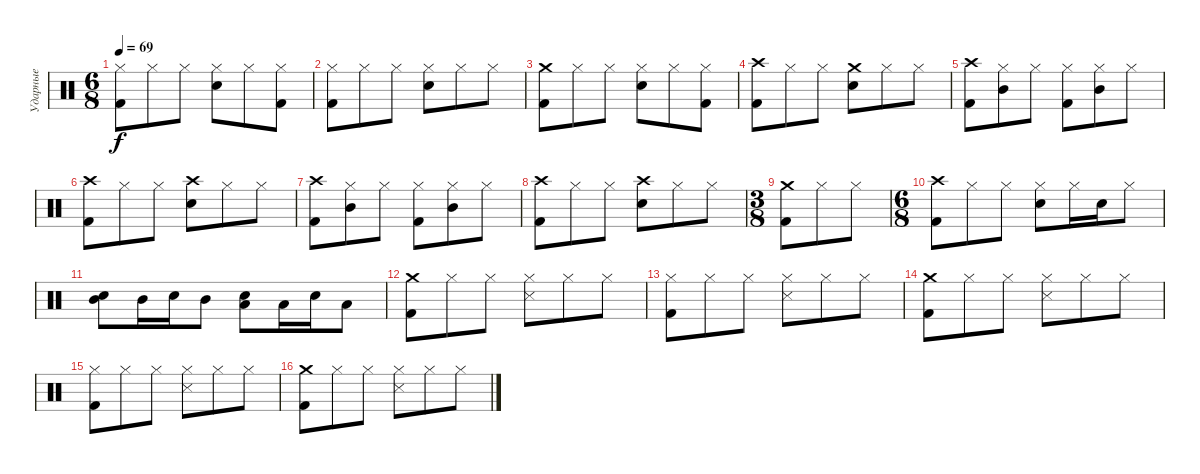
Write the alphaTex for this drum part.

\track ("Ударные" "Ударные") {instrument percussion}
\staff {score}
\articulation defaults
\ts (6 8)
\tempo 69
\clef neutral
\ks c
("Hi-Hat (closed)" "Kick (hit) 2").8{dy f} "Hi-Hat (closed)".8 "Hi-Hat (closed)".8 ("Hi-Hat (closed)" "Snare (hit) 2").8 "Hi-Hat (closed)".8 ("Hi-Hat (closed)" "Kick (hit) 2").8 |
("Hi-Hat (closed)" "Kick (hit) 2").8 "Hi-Hat (closed)".8 "Hi-Hat (closed)".8 ("Hi-Hat (closed)" "Snare (hit) 2").8 "Hi-Hat (closed)".8 "Hi-Hat (closed)".8 |
("Crash medium (hit)" "Kick (hit) 2").8 "Hi-Hat (closed)".8 "Hi-Hat (closed)".8 ("Hi-Hat (closed)" "Snare (hit) 2").8 "Hi-Hat (closed)".8 ("Hi-Hat (closed)" "Kick (hit) 2").8 |
("Crash high (hit)" "Kick (hit) 2").8 "Hi-Hat (closed)".8 "Hi-Hat (closed)".8 ("Crash medium (hit)" "Snare (hit) 2").8 "Hi-Hat (closed)".8 "Hi-Hat (closed)".8 |
("Crash high (hit)" "Kick (hit) 2").8 ("Hi-Hat (closed)" "Mid Tom (hit)").8 "Hi-Hat (closed)".8 ("Hi-Hat (closed)" "Kick (hit) 2").8 ("Hi-Hat (closed)" "Mid Tom (hit)").8 "Hi-Hat (closed)".8 |
("Crash high (hit)" "Kick (hit) 2").8 "Hi-Hat (closed)".8 "Hi-Hat (closed)".8 ("Crash high (hit)" "Snare (hit) 2").8 "Hi-Hat (closed)".8 "Hi-Hat (closed)".8 |
("Crash high (hit)" "Kick (hit) 2").8 ("Hi-Hat (closed)" "Mid Tom (hit)").8 "Hi-Hat (closed)".8 ("Hi-Hat (closed)" "Kick (hit) 2").8 ("Hi-Hat (closed)" "Mid Tom (hit)").8 "Hi-Hat (closed)".8 |
("Crash high (hit)" "Kick (hit) 2").8 "Hi-Hat (closed)".8 "Hi-Hat (closed)".8 ("Crash high (hit)" "Snare (hit) 2").8 "Hi-Hat (closed)".8 "Hi-Hat (closed)".8 |
\ts (3 8)
("Crash medium (hit)" "Kick (hit) 2").8 "Hi-Hat (closed)".8 "Hi-Hat (closed)".8 |
\ts (6 8)
("Crash high (hit)" "Kick (hit) 2").8 "Hi-Hat (closed)".8 "Hi-Hat (closed)".8 ("Hi-Hat (closed)" "Snare (hit) 2").8 "Hi-Hat (closed)".16 "Snare (hit) 2".16 "Hi-Hat (closed)".8 |
("Mid Tom (hit)" "Snare (hit) 2").8 "Mid Tom (hit)".16 "Snare (hit) 2".16 "Mid Tom (hit)".8 ("Snare (hit) 2" "Low Tom (hit)").8 "Low Tom (hit)".16 "Snare (hit) 2".16 "Low Tom (hit)".8 |
("Crash medium (hit)" "Kick (hit) 2").8 "Hi-Hat (closed)".8 "Hi-Hat (closed)".8 ("Hi-Hat (closed)" "Snare (side stick) 3").8 "Hi-Hat (closed)".8 "Hi-Hat (closed)".8 |
("Hi-Hat (closed)" "Kick (hit) 2").8 "Hi-Hat (closed)".8 "Hi-Hat (closed)".8 ("Hi-Hat (closed)" "Snare (side stick) 3").8 "Hi-Hat (closed)".8 "Hi-Hat (closed)".8 |
("Crash medium (hit)" "Kick (hit) 2").8 "Hi-Hat (closed)".8 "Hi-Hat (closed)".8 ("Hi-Hat (closed)" "Snare (side stick) 3").8 "Hi-Hat (closed)".8 "Hi-Hat (closed)".8 |
("Hi-Hat (closed)" "Kick (hit) 2").8 "Hi-Hat (closed)".8 "Hi-Hat (closed)".8 ("Hi-Hat (closed)" "Snare (side stick) 3").8 "Hi-Hat (closed)".8 "Hi-Hat (closed)".8 |
("Crash medium (hit)" "Kick (hit) 2").8 "Hi-Hat (closed)".8 "Hi-Hat (closed)".8 ("Hi-Hat (closed)" "Snare (side stick) 3").8 "Hi-Hat (closed)".8 "Hi-Hat (closed)".8
